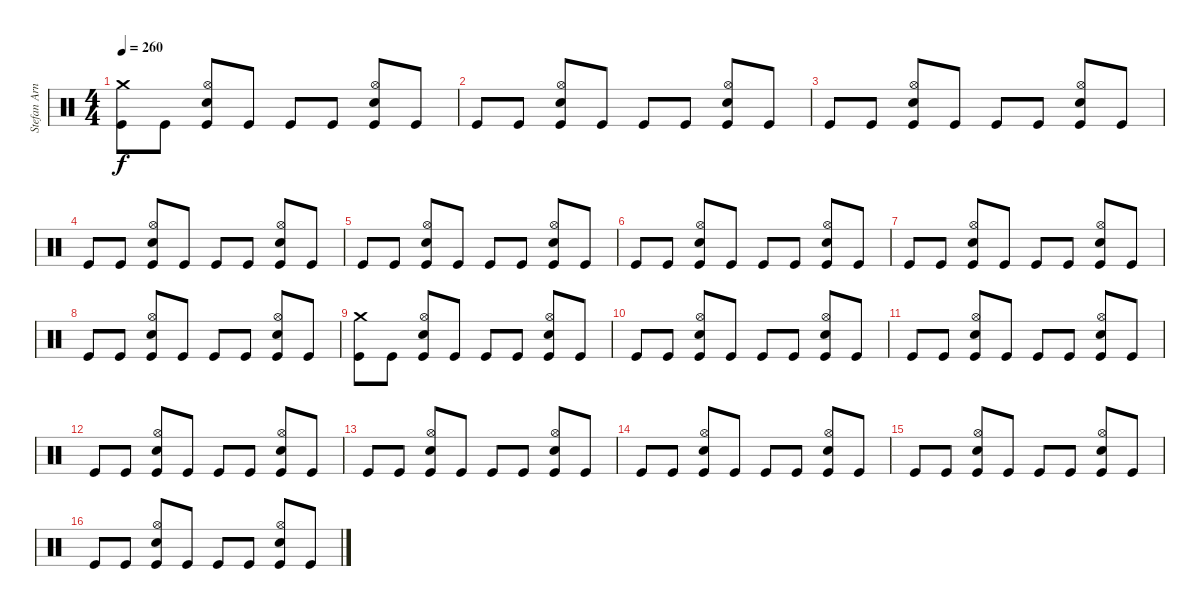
\track ("Stefan Arnold" "Stefan Arn") {instrument percussion}
\staff {score}
\articulation defaults
\ts (4 4)
\tempo 260
\clef neutral
\ks c
("Crash medium (hit)" "Kick (hit)").8{dy f} "Kick (hit)".8 ("Hi-Hat (open)" "Electric Snare (hit)" "Kick (hit)").8 "Kick (hit)".8 "Kick (hit)".8 "Kick (hit)".8 ("Hi-Hat (open)" "Electric Snare (hit)" "Kick (hit)").8 "Kick (hit)".8 |
"Kick (hit)".8 "Kick (hit)".8 ("Hi-Hat (open)" "Electric Snare (hit)" "Kick (hit)").8 "Kick (hit)".8 "Kick (hit)".8 "Kick (hit)".8 ("Hi-Hat (open)" "Electric Snare (hit)" "Kick (hit)").8 "Kick (hit)".8 |
"Kick (hit)".8 "Kick (hit)".8 ("Hi-Hat (open)" "Electric Snare (hit)" "Kick (hit)").8 "Kick (hit)".8 "Kick (hit)".8 "Kick (hit)".8 ("Hi-Hat (open)" "Electric Snare (hit)" "Kick (hit)").8 "Kick (hit)".8 |
"Kick (hit)".8 "Kick (hit)".8 ("Hi-Hat (open)" "Electric Snare (hit)" "Kick (hit)").8 "Kick (hit)".8 "Kick (hit)".8 "Kick (hit)".8 ("Hi-Hat (open)" "Electric Snare (hit)" "Kick (hit)").8 "Kick (hit)".8 |
"Kick (hit)".8 "Kick (hit)".8 ("Hi-Hat (open)" "Electric Snare (hit)" "Kick (hit)").8 "Kick (hit)".8 "Kick (hit)".8 "Kick (hit)".8 ("Hi-Hat (open)" "Electric Snare (hit)" "Kick (hit)").8 "Kick (hit)".8 |
"Kick (hit)".8 "Kick (hit)".8 ("Hi-Hat (open)" "Electric Snare (hit)" "Kick (hit)").8 "Kick (hit)".8 "Kick (hit)".8 "Kick (hit)".8 ("Hi-Hat (open)" "Electric Snare (hit)" "Kick (hit)").8 "Kick (hit)".8 |
"Kick (hit)".8 "Kick (hit)".8 ("Hi-Hat (open)" "Electric Snare (hit)" "Kick (hit)").8 "Kick (hit)".8 "Kick (hit)".8 "Kick (hit)".8 ("Hi-Hat (open)" "Electric Snare (hit)" "Kick (hit)").8 "Kick (hit)".8 |
"Kick (hit)".8 "Kick (hit)".8 ("Hi-Hat (open)" "Electric Snare (hit)" "Kick (hit)").8 "Kick (hit)".8 "Kick (hit)".8 "Kick (hit)".8 ("Hi-Hat (open)" "Electric Snare (hit)" "Kick (hit)").8 "Kick (hit)".8 |
("Crash medium (hit)" "Kick (hit)").8 "Kick (hit)".8 ("Hi-Hat (open)" "Electric Snare (hit)" "Kick (hit)").8 "Kick (hit)".8 "Kick (hit)".8 "Kick (hit)".8 ("Hi-Hat (open)" "Electric Snare (hit)" "Kick (hit)").8 "Kick (hit)".8 |
"Kick (hit)".8 "Kick (hit)".8 ("Hi-Hat (open)" "Electric Snare (hit)" "Kick (hit)").8 "Kick (hit)".8 "Kick (hit)".8 "Kick (hit)".8 ("Hi-Hat (open)" "Electric Snare (hit)" "Kick (hit)").8 "Kick (hit)".8 |
"Kick (hit)".8 "Kick (hit)".8 ("Hi-Hat (open)" "Electric Snare (hit)" "Kick (hit)").8 "Kick (hit)".8 "Kick (hit)".8 "Kick (hit)".8 ("Hi-Hat (open)" "Electric Snare (hit)" "Kick (hit)").8 "Kick (hit)".8 |
"Kick (hit)".8 "Kick (hit)".8 ("Hi-Hat (open)" "Electric Snare (hit)" "Kick (hit)").8 "Kick (hit)".8 "Kick (hit)".8 "Kick (hit)".8 ("Hi-Hat (open)" "Electric Snare (hit)" "Kick (hit)").8 "Kick (hit)".8 |
"Kick (hit)".8 "Kick (hit)".8 ("Hi-Hat (open)" "Electric Snare (hit)" "Kick (hit)").8 "Kick (hit)".8 "Kick (hit)".8 "Kick (hit)".8 ("Hi-Hat (open)" "Electric Snare (hit)" "Kick (hit)").8 "Kick (hit)".8 |
"Kick (hit)".8 "Kick (hit)".8 ("Hi-Hat (open)" "Electric Snare (hit)" "Kick (hit)").8 "Kick (hit)".8 "Kick (hit)".8 "Kick (hit)".8 ("Hi-Hat (open)" "Electric Snare (hit)" "Kick (hit)").8 "Kick (hit)".8 |
"Kick (hit)".8 "Kick (hit)".8 ("Hi-Hat (open)" "Electric Snare (hit)" "Kick (hit)").8 "Kick (hit)".8 "Kick (hit)".8 "Kick (hit)".8 ("Hi-Hat (open)" "Electric Snare (hit)" "Kick (hit)").8 "Kick (hit)".8 |
"Kick (hit)".8 "Kick (hit)".8 ("Hi-Hat (open)" "Electric Snare (hit)" "Kick (hit)").8 "Kick (hit)".8 "Kick (hit)".8 "Kick (hit)".8 ("Hi-Hat (open)" "Electric Snare (hit)" "Kick (hit)").8 "Kick (hit)".8
